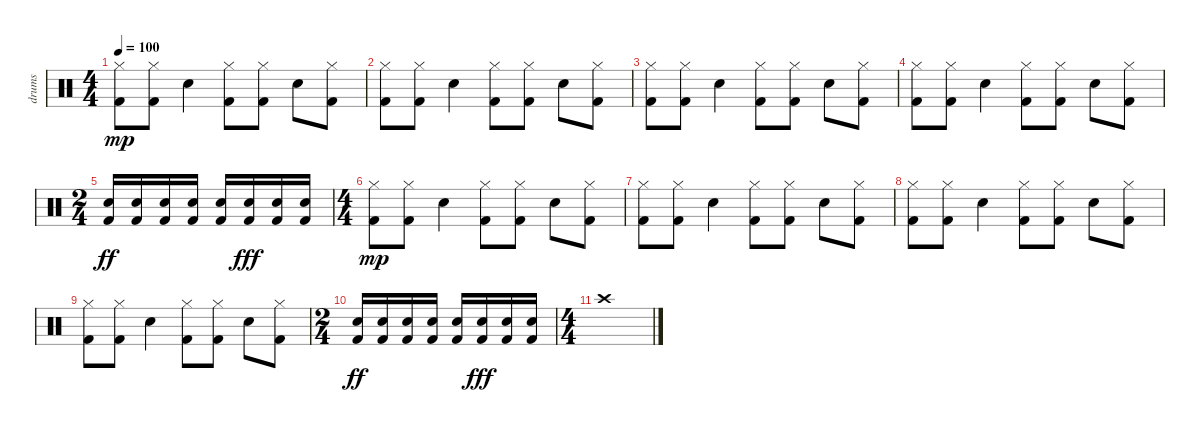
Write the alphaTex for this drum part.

\track ("drums" "drums") {instrument percussion}
\staff {score}
\articulation defaults
\ts (4 4)
\tempo 100
\clef neutral
\ks c
("Hi-Hat (closed)" "Kick (hit) 2").8{dy mp} ("Hi-Hat (closed)" "Kick (hit) 2").8 "Electric Snare (hit)".4 ("Hi-Hat (closed)" "Kick (hit) 2").8 ("Hi-Hat (closed)" "Kick (hit) 2").8 "Electric Snare (hit)".8 ("Hi-Hat (closed)" "Kick (hit) 2").8 |
("Hi-Hat (closed)" "Kick (hit) 2").8 ("Hi-Hat (closed)" "Kick (hit) 2").8 "Electric Snare (hit)".4 ("Hi-Hat (closed)" "Kick (hit) 2").8 ("Hi-Hat (closed)" "Kick (hit) 2").8 "Electric Snare (hit)".8 ("Hi-Hat (closed)" "Kick (hit) 2").8 |
("Hi-Hat (closed)" "Kick (hit) 2").8 ("Hi-Hat (closed)" "Kick (hit) 2").8 "Electric Snare (hit)".4 ("Hi-Hat (closed)" "Kick (hit) 2").8 ("Hi-Hat (closed)" "Kick (hit) 2").8 "Electric Snare (hit)".8 ("Hi-Hat (closed)" "Kick (hit) 2").8 |
("Hi-Hat (closed)" "Kick (hit) 2").8 ("Hi-Hat (closed)" "Kick (hit) 2").8 "Electric Snare (hit)".4 ("Hi-Hat (closed)" "Kick (hit) 2").8 ("Hi-Hat (closed)" "Kick (hit) 2").8 "Electric Snare (hit)".8 ("Hi-Hat (closed)" "Kick (hit) 2").8 |
\ts (2 4)
("Electric Snare (hit)" "Kick (hit) 2").16{dy ff} ("Electric Snare (hit)" "Kick (hit) 2").16 ("Electric Snare (hit)" "Kick (hit) 2").16 ("Electric Snare (hit)" "Kick (hit) 2").16 ("Electric Snare (hit)" "Kick (hit) 2").16 ("Electric Snare (hit)" "Kick (hit) 2").16{dy fff} ("Electric Snare (hit)" "Kick (hit) 2").16 ("Electric Snare (hit)" "Kick (hit) 2").16 |
\ts (4 4)
("Hi-Hat (closed)" "Kick (hit) 2").8{dy mp} ("Hi-Hat (closed)" "Kick (hit) 2").8 "Electric Snare (hit)".4 ("Hi-Hat (closed)" "Kick (hit) 2").8 ("Hi-Hat (closed)" "Kick (hit) 2").8 "Electric Snare (hit)".8 ("Hi-Hat (closed)" "Kick (hit) 2").8 |
("Hi-Hat (closed)" "Kick (hit) 2").8 ("Hi-Hat (closed)" "Kick (hit) 2").8 "Electric Snare (hit)".4 ("Hi-Hat (closed)" "Kick (hit) 2").8 ("Hi-Hat (closed)" "Kick (hit) 2").8 "Electric Snare (hit)".8 ("Hi-Hat (closed)" "Kick (hit) 2").8 |
("Hi-Hat (closed)" "Kick (hit) 2").8 ("Hi-Hat (closed)" "Kick (hit) 2").8 "Electric Snare (hit)".4 ("Hi-Hat (closed)" "Kick (hit) 2").8 ("Hi-Hat (closed)" "Kick (hit) 2").8 "Electric Snare (hit)".8 ("Hi-Hat (closed)" "Kick (hit) 2").8 |
("Hi-Hat (closed)" "Kick (hit) 2").8 ("Hi-Hat (closed)" "Kick (hit) 2").8 "Electric Snare (hit)".4 ("Hi-Hat (closed)" "Kick (hit) 2").8 ("Hi-Hat (closed)" "Kick (hit) 2").8 "Electric Snare (hit)".8 ("Hi-Hat (closed)" "Kick (hit) 2").8 |
\ts (2 4)
("Electric Snare (hit)" "Kick (hit) 2").16{dy ff} ("Electric Snare (hit)" "Kick (hit) 2").16 ("Electric Snare (hit)" "Kick (hit) 2").16 ("Electric Snare (hit)" "Kick (hit) 2").16 ("Electric Snare (hit)" "Kick (hit) 2").16 ("Electric Snare (hit)" "Kick (hit) 2").16{dy fff} ("Electric Snare (hit)" "Kick (hit) 2").16 ("Electric Snare (hit)" "Kick (hit) 2").16 |
\ts (4 4)
"Crash high (hit)".1
